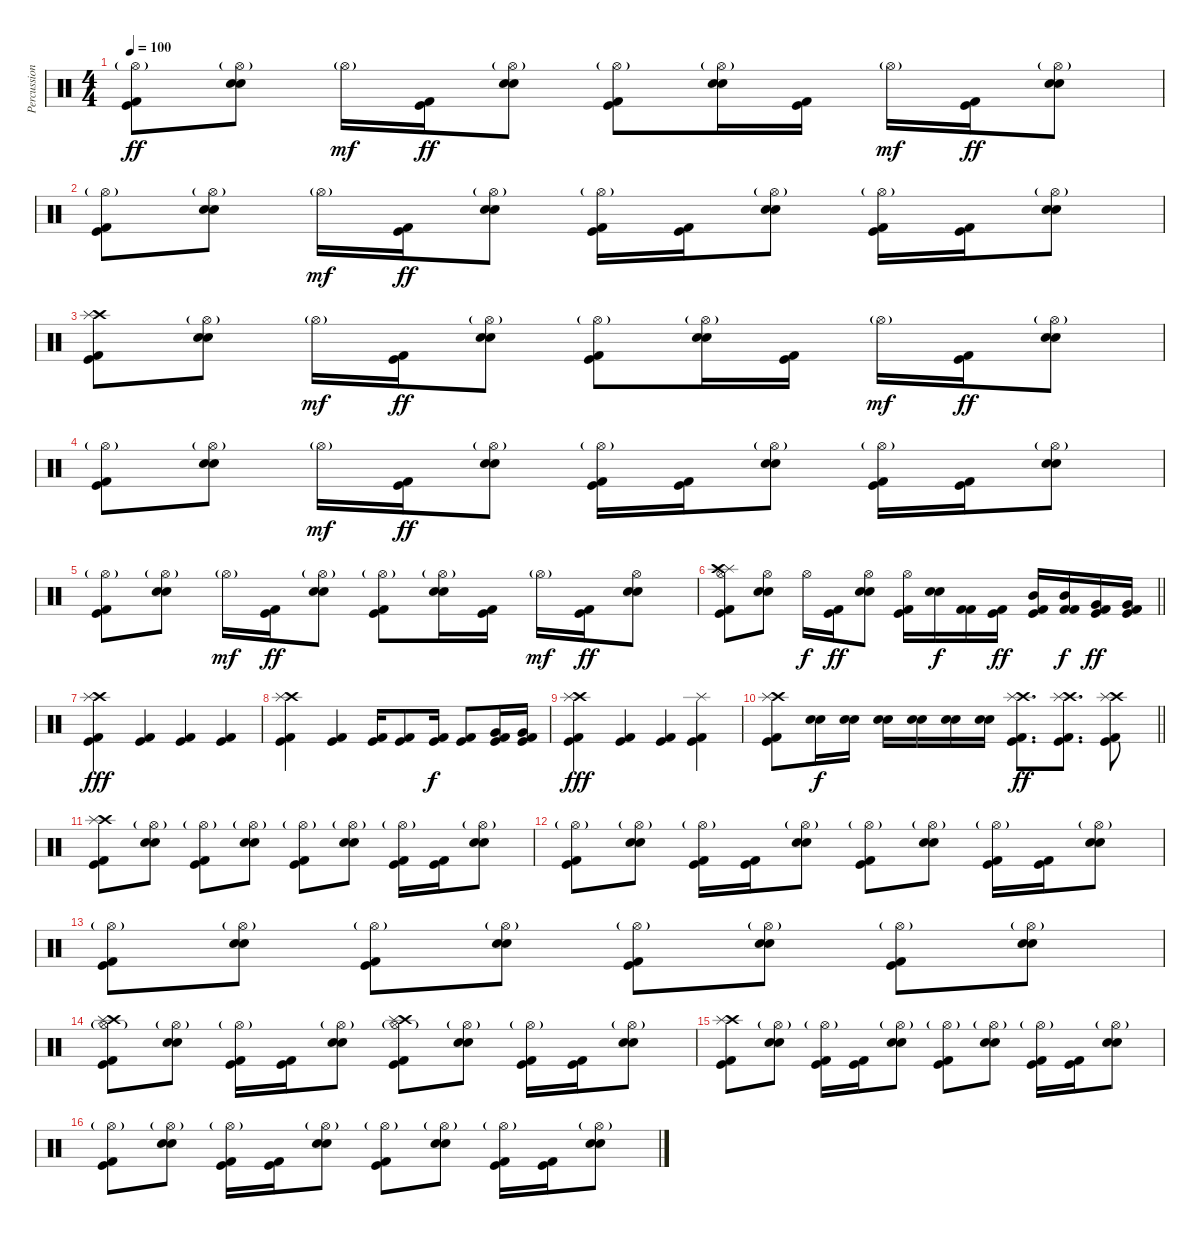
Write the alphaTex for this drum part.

\track ("Percussion" "Percussion") {instrument percussion}
\staff {score}
\articulation defaults
\ts (4 4)
\tempo 100
\clef neutral
\ks c
("Hi-Hat (open)"{g} "Kick (hit)" "Kick (hit) 2").8{dy ff} ("Hi-Hat (open)"{g} "Electric Snare (hit)" "Snare (hit) 2").8 "Hi-Hat (open)"{g}.16{dy mf} ("Kick (hit)" "Kick (hit) 2").16{dy ff} ("Hi-Hat (open)"{g} "Electric Snare (hit)" "Snare (hit) 2").8 ("Hi-Hat (open)"{g} "Kick (hit)" "Kick (hit) 2").8 ("Hi-Hat (open)"{g} "Electric Snare (hit)" "Snare (hit) 2").16 ("Kick (hit)" "Kick (hit) 2").16 "Hi-Hat (open)"{g}.16{dy mf} ("Kick (hit)" "Kick (hit) 2").16{dy ff} ("Hi-Hat (open)"{g} "Electric Snare (hit)" "Snare (hit) 2").8 |
("Hi-Hat (open)"{g} "Kick (hit)" "Kick (hit) 2").8 ("Hi-Hat (open)"{g} "Electric Snare (hit)" "Snare (hit) 2").8 "Hi-Hat (open)"{g}.16{dy mf} ("Kick (hit)" "Kick (hit) 2").16{dy ff} ("Hi-Hat (open)"{g} "Electric Snare (hit)" "Snare (hit) 2").8 ("Hi-Hat (open)"{g} "Kick (hit)" "Kick (hit) 2").16 ("Kick (hit)" "Kick (hit) 2").16 ("Hi-Hat (open)"{g} "Electric Snare (hit)" "Snare (hit) 2").8 ("Hi-Hat (open)"{g} "Kick (hit)" "Kick (hit) 2").16 ("Kick (hit)" "Kick (hit) 2").16 ("Hi-Hat (open)"{g} "Electric Snare (hit)" "Snare (hit) 2").8 |
("Crash high (hit)" "Splash (hit)" "Kick (hit)" "Kick (hit) 2").8 ("Hi-Hat (open)"{g} "Electric Snare (hit)" "Snare (hit) 2").8 "Hi-Hat (open)"{g}.16{dy mf} ("Kick (hit)" "Kick (hit) 2").16{dy ff} ("Hi-Hat (open)"{g} "Electric Snare (hit)" "Snare (hit) 2").8 ("Hi-Hat (open)"{g} "Kick (hit)" "Kick (hit) 2").8 ("Hi-Hat (open)"{g} "Electric Snare (hit)" "Snare (hit) 2").16 ("Kick (hit)" "Kick (hit) 2").16 "Hi-Hat (open)"{g}.16{dy mf} ("Kick (hit)" "Kick (hit) 2").16{dy ff} ("Hi-Hat (open)"{g} "Electric Snare (hit)" "Snare (hit) 2").8 |
("Hi-Hat (open)"{g} "Kick (hit)" "Kick (hit) 2").8 ("Hi-Hat (open)"{g} "Electric Snare (hit)" "Snare (hit) 2").8 "Hi-Hat (open)"{g}.16{dy mf} ("Kick (hit)" "Kick (hit) 2").16{dy ff} ("Hi-Hat (open)"{g} "Electric Snare (hit)" "Snare (hit) 2").8 ("Hi-Hat (open)"{g} "Kick (hit)" "Kick (hit) 2").16 ("Kick (hit)" "Kick (hit) 2").16 ("Hi-Hat (open)"{g} "Electric Snare (hit)" "Snare (hit) 2").8 ("Hi-Hat (open)"{g} "Kick (hit)" "Kick (hit) 2").16 ("Kick (hit)" "Kick (hit) 2").16 ("Hi-Hat (open)"{g} "Electric Snare (hit)" "Snare (hit) 2").8 |
("Hi-Hat (open)"{g} "Kick (hit)" "Kick (hit) 2").8 ("Hi-Hat (open)"{g} "Electric Snare (hit)" "Snare (hit) 2").8 "Hi-Hat (open)"{g}.16{dy mf} ("Kick (hit)" "Kick (hit) 2").16{dy ff} ("Hi-Hat (open)"{g} "Electric Snare (hit)" "Snare (hit) 2").8 ("Hi-Hat (open)"{g} "Kick (hit)" "Kick (hit) 2").8 ("Hi-Hat (open)"{g} "Electric Snare (hit)" "Snare (hit) 2").16 ("Kick (hit)" "Kick (hit) 2").16 "Hi-Hat (open)"{g}.16{dy mf} ("Kick (hit)" "Kick (hit) 2").16{dy ff} ("Hi-Hat (open)" "Electric Snare (hit)" "Snare (hit) 2").8 |
\barLineRight lightlight
("Hi-Hat (open)" "Splash (hit)" "Crash high (hit)" "Kick (hit)" "Kick (hit) 2").8 ("Hi-Hat (open)" "Electric Snare (hit)" "Snare (hit) 2").8 "Hi-Hat (open)".16{dy f} ("Kick (hit)" "Kick (hit) 2").16{dy ff} ("Hi-Hat (open)" "Electric Snare (hit)" "Snare (hit) 2").8 ("Hi-Hat (open)" "Kick (hit)" "Kick (hit) 2").16 ("Electric Snare (hit)" "Snare (hit) 2").16{dy f} ("Kick (hit) 2" "Kick (hit) 2").16 ("Kick (hit)" "Kick (hit) 2").16{dy ff} ("Mid Tom (hit)" "Kick (hit)" "Kick (hit) 2").16 ("Mid Tom (hit)" "Kick (hit) 2" "Kick (hit) 2").16{dy f} ("Very Low Tom (hit)" "Kick (hit)" "Kick (hit) 2").16{dy ff} ("Very Low Tom (hit)" "Kick (hit)" "Kick (hit) 2").16 |
("Crash high (hit)" "Splash (hit)" "Kick (hit)" "Kick (hit) 2").4{dy fff} ("Kick (hit)" "Kick (hit) 2").4 ("Kick (hit)" "Kick (hit) 2").4 ("Kick (hit)" "Kick (hit) 2").4 |
("Crash high (hit)" "Splash (hit)" "Kick (hit)" "Kick (hit) 2").4 ("Kick (hit)" "Kick (hit) 2").4 ("Kick (hit)" "Kick (hit) 2").16 ("Kick (hit)" "Kick (hit) 2").8 ("Kick (hit)" "Kick (hit) 2").16{dy f} ("Kick (hit)" "Kick (hit) 2").8 ("Very Low Tom (hit)" "Kick (hit)" "Kick (hit) 2").16 ("Very Low Tom (hit)" "Kick (hit)" "Kick (hit) 2").16 |
("Crash high (hit)" "Splash (hit)" "Kick (hit)" "Kick (hit) 2").4{dy fff} ("Kick (hit)" "Kick (hit) 2").4 ("Kick (hit)" "Kick (hit) 2").4 ("Splash (hit)" "Kick (hit)" "Kick (hit) 2").4 |
\barLineRight lightlight
("Crash high (hit)" "Splash (hit)" "Kick (hit)" "Kick (hit) 2").8 ("Electric Snare (hit)" "Snare (hit) 2").16{dy f} ("Electric Snare (hit)" "Snare (hit) 2").16 ("Electric Snare (hit)" "Snare (hit) 2").16 ("Electric Snare (hit)" "Snare (hit) 2").16 ("Electric Snare (hit)" "Snare (hit) 2").16 ("Electric Snare (hit)" "Snare (hit) 2").16 ("Crash high (hit)" "Splash (hit)" "Kick (hit)" "Kick (hit) 2").8{d dy ff} ("Crash high (hit)" "Splash (hit)" "Kick (hit)" "Kick (hit) 2").8{d} ("Crash high (hit)" "Splash (hit)" "Kick (hit)" "Kick (hit) 2").8 |
("Crash high (hit)" "Splash (hit)" "Kick (hit)" "Kick (hit) 2").8 ("Hi-Hat (open)"{g} "Electric Snare (hit)" "Snare (hit) 2").8 ("Hi-Hat (open)"{g} "Kick (hit)" "Kick (hit) 2").8 ("Hi-Hat (open)"{g} "Electric Snare (hit)" "Snare (hit) 2").8 ("Hi-Hat (open)"{g} "Kick (hit)" "Kick (hit) 2").8 ("Hi-Hat (open)"{g} "Electric Snare (hit)" "Snare (hit) 2").8 ("Hi-Hat (open)"{g} "Kick (hit)" "Kick (hit) 2").16 ("Kick (hit)" "Kick (hit) 2").16 ("Hi-Hat (open)"{g} "Electric Snare (hit)" "Snare (hit) 2").8 |
("Hi-Hat (open)"{g} "Kick (hit)" "Kick (hit) 2").8 ("Hi-Hat (open)"{g} "Electric Snare (hit)" "Snare (hit) 2").8 ("Hi-Hat (open)"{g} "Kick (hit)" "Kick (hit) 2").16 ("Kick (hit)" "Kick (hit) 2").16 ("Hi-Hat (open)"{g} "Electric Snare (hit)" "Snare (hit) 2").8 ("Hi-Hat (open)"{g} "Kick (hit)" "Kick (hit) 2").8 ("Hi-Hat (open)"{g} "Electric Snare (hit)" "Snare (hit) 2").8 ("Hi-Hat (open)"{g} "Kick (hit)" "Kick (hit) 2").16 ("Kick (hit)" "Kick (hit) 2").16 ("Hi-Hat (open)"{g} "Electric Snare (hit)" "Snare (hit) 2").8 |
("Hi-Hat (open)"{g} "Kick (hit)" "Kick (hit) 2").8 ("Hi-Hat (open)"{g} "Electric Snare (hit)" "Snare (hit) 2").8 ("Hi-Hat (open)"{g} "Kick (hit)" "Kick (hit) 2").8 ("Hi-Hat (open)"{g} "Electric Snare (hit)" "Snare (hit) 2").8 ("Hi-Hat (open)"{g} "Kick (hit)" "Kick (hit) 2").8 ("Hi-Hat (open)"{g} "Electric Snare (hit)" "Snare (hit) 2").8 ("Hi-Hat (open)"{g} "Kick (hit)" "Kick (hit) 2").8 ("Hi-Hat (open)"{g} "Electric Snare (hit)" "Snare (hit) 2").8 |
("Hi-Hat (open)"{g} "Crash high (hit)" "Splash (hit)" "Kick (hit)" "Kick (hit) 2").8 ("Hi-Hat (open)"{g} "Electric Snare (hit)" "Snare (hit) 2").8 ("Hi-Hat (open)"{g} "Kick (hit)" "Kick (hit) 2").16 ("Kick (hit)" "Kick (hit) 2").16 ("Hi-Hat (open)"{g} "Electric Snare (hit)" "Snare (hit) 2").8 ("Hi-Hat (open)"{g} "Crash high (hit)" "Splash (hit)" "Kick (hit)" "Kick (hit) 2").8 ("Hi-Hat (open)"{g} "Electric Snare (hit)" "Snare (hit) 2").8 ("Hi-Hat (open)"{g} "Kick (hit)" "Kick (hit) 2").16 ("Kick (hit)" "Kick (hit) 2").16 ("Hi-Hat (open)"{g} "Electric Snare (hit)" "Snare (hit) 2").8 |
("Crash high (hit)" "Splash (hit)" "Kick (hit)" "Kick (hit) 2").8 ("Hi-Hat (open)"{g} "Electric Snare (hit)" "Snare (hit) 2").8 ("Hi-Hat (open)"{g} "Kick (hit)" "Kick (hit) 2").16 ("Kick (hit)" "Kick (hit) 2").16 ("Hi-Hat (open)"{g} "Electric Snare (hit)" "Snare (hit) 2").8 ("Hi-Hat (open)"{g} "Kick (hit)" "Kick (hit) 2").8 ("Hi-Hat (open)"{g} "Electric Snare (hit)" "Snare (hit) 2").8 ("Hi-Hat (open)"{g} "Kick (hit)" "Kick (hit) 2").16 ("Kick (hit)" "Kick (hit) 2").16 ("Hi-Hat (open)"{g} "Electric Snare (hit)" "Snare (hit) 2").8 |
("Hi-Hat (open)"{g} "Kick (hit)" "Kick (hit) 2").8 ("Hi-Hat (open)"{g} "Electric Snare (hit)" "Snare (hit) 2").8 ("Hi-Hat (open)"{g} "Kick (hit)" "Kick (hit) 2").16 ("Kick (hit)" "Kick (hit) 2").16 ("Hi-Hat (open)"{g} "Electric Snare (hit)" "Snare (hit) 2").8 ("Hi-Hat (open)"{g} "Kick (hit)" "Kick (hit) 2").8 ("Hi-Hat (open)"{g} "Electric Snare (hit)" "Snare (hit) 2").8 ("Hi-Hat (open)"{g} "Kick (hit)" "Kick (hit) 2").16 ("Kick (hit)" "Kick (hit) 2").16 ("Hi-Hat (open)"{g} "Electric Snare (hit)" "Snare (hit) 2").8
